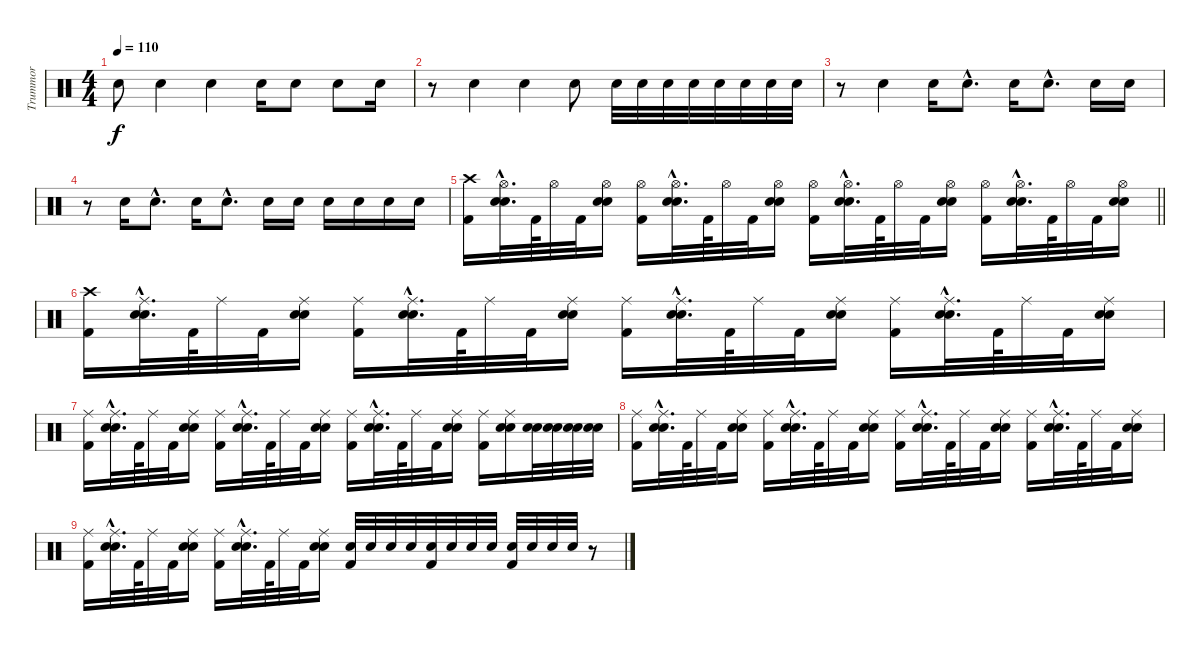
\track ("Trummor" "Trummor") {instrument percussion}
\staff {score}
\articulation defaults
\ts (4 4)
\tempo 110
\clef neutral
\ks c "Electric Snare (hit)".8{dy f} "Electric Snare (hit)".4 "Electric Snare (hit)".4 "Electric Snare (hit)".16 "Electric Snare (hit)".8 "Electric Snare (hit)".8 "Electric Snare (hit)".16
|
r.8 "Electric Snare (hit)".4 "Electric Snare (hit)".4 "Electric Snare (hit)".8 "Electric Snare (hit)".32 "Electric Snare (hit)".32 "Electric Snare (hit)".32 "Electric Snare (hit)".32 "Electric Snare (hit)".32 "Electric Snare (hit)".32 "Electric Snare (hit)".32 "Electric Snare (hit)".32 |
r.8 "Electric Snare (hit)".4 "Electric Snare (hit)".16 "Electric Snare (hit)"{hac}.8{d} "Electric Snare (hit)".16 "Electric Snare (hit)"{hac}.8{d} "Electric Snare (hit)".16 "Electric Snare (hit)".16 |
r.8 "Electric Snare (hit)".16 "Electric Snare (hit)"{hac}.8{d} "Electric Snare (hit)".16 "Electric Snare (hit)"{hac}.8{d} "Electric Snare (hit)".16 "Electric Snare (hit)".16 "Electric Snare (hit)".16 "Electric Snare (hit)".16 "Electric Snare (hit)".16 "Electric Snare (hit)".16 |
\barLineRight lightlight
("Crash high (hit)" "Kick (hit) 2").16 ("Hi-Hat (open)"{hac} "Electric Snare (hit)"{hac} "Electric Snare (hit)"{hac}).32{d} "Kick (hit) 2".64 "Hi-Hat (open)".32 "Kick (hit) 2".32 ("Hi-Hat (open)" "Electric Snare (hit)" "Electric Snare (hit)").16 ("Hi-Hat (open)" "Kick (hit) 2").16 ("Hi-Hat (open)"{hac} "Electric Snare (hit)"{hac} "Electric Snare (hit)"{hac}).32{d} "Kick (hit) 2".64 "Hi-Hat (open)".32 "Kick (hit) 2".32 ("Hi-Hat (open)" "Electric Snare (hit)" "Electric Snare (hit)").16 ("Hi-Hat (open)" "Kick (hit) 2").16 ("Hi-Hat (open)"{hac} "Electric Snare (hit)"{hac} "Electric Snare (hit)"{hac}).32{d} "Kick (hit) 2".64 "Hi-Hat (open)".32 "Kick (hit) 2".32 ("Hi-Hat (open)" "Electric Snare (hit)" "Electric Snare (hit)").16 ("Hi-Hat (open)" "Kick (hit) 2").16 ("Hi-Hat (open)"{hac} "Electric Snare (hit)"{hac} "Electric Snare (hit)"{hac}).32{d} "Kick (hit) 2".64 "Hi-Hat (open)".32 "Kick (hit) 2".32 ("Hi-Hat (open)" "Electric Snare (hit)" "Electric Snare (hit)").16 |
("Crash high (hit)" "Kick (hit) 2").16 ("Ride (middle)"{hac} "Electric Snare (hit)"{hac} "Electric Snare (hit)"{hac}).32{d} "Kick (hit) 2".64 "Ride (middle)".32 "Kick (hit) 2".32 ("Ride (middle)" "Electric Snare (hit)" "Electric Snare (hit)").16 ("Ride (middle)" "Kick (hit) 2").16 ("Ride (middle)"{hac} "Electric Snare (hit)"{hac} "Electric Snare (hit)"{hac}).32{d} "Kick (hit) 2".64 "Ride (middle)".32 "Kick (hit) 2".32 ("Ride (middle)" "Electric Snare (hit)" "Electric Snare (hit)").16 ("Ride (middle)" "Kick (hit) 2").16 ("Ride (middle)"{hac} "Electric Snare (hit)"{hac} "Electric Snare (hit)"{hac}).32{d} "Kick (hit) 2".64 "Ride (middle)".32 "Kick (hit) 2".32 ("Ride (middle)" "Electric Snare (hit)" "Electric Snare (hit)").16 ("Ride (middle)" "Kick (hit) 2").16 ("Ride (middle)"{hac} "Electric Snare (hit)"{hac} "Electric Snare (hit)"{hac}).32{d} "Kick (hit) 2".64 "Ride (middle)".32 "Kick (hit) 2".32 ("Ride (middle)" "Electric Snare (hit)" "Electric Snare (hit)").16 |
("Ride (middle)" "Kick (hit) 2").16 ("Ride (middle)"{hac} "Electric Snare (hit)"{hac} "Electric Snare (hit)"{hac}).32{d} "Kick (hit) 2".64 "Ride (middle)".32 "Kick (hit) 2".32 ("Ride (middle)" "Electric Snare (hit)" "Electric Snare (hit)").16 ("Ride (middle)" "Kick (hit) 2").16 ("Ride (middle)"{hac} "Electric Snare (hit)"{hac} "Electric Snare (hit)"{hac}).32{d} "Kick (hit) 2".64 "Ride (middle)".32 "Kick (hit) 2".32 ("Ride (middle)" "Electric Snare (hit)" "Electric Snare (hit)").16 ("Ride (middle)" "Kick (hit) 2").16 ("Ride (middle)"{hac} "Electric Snare (hit)"{hac} "Electric Snare (hit)"{hac}).32{d} "Kick (hit) 2".64 "Ride (middle)".32 "Kick (hit) 2".32 ("Ride (middle)" "Electric Snare (hit)" "Electric Snare (hit)").16 ("Ride (middle)" "Kick (hit) 2").16 ("Ride (middle)" "Electric Snare (hit)" "Electric Snare (hit)").16 ("Electric Snare (hit)" "Electric Snare (hit)").32 ("Electric Snare (hit)" "Electric Snare (hit)").32 ("Electric Snare (hit)" "Electric Snare (hit)").32 ("Electric Snare (hit)" "Electric Snare (hit)").32 |
("Ride (middle)" "Kick (hit) 2").16 ("Ride (middle)"{hac} "Electric Snare (hit)"{hac} "Electric Snare (hit)"{hac}).32{d} "Kick (hit) 2".64 "Ride (middle)".32 "Kick (hit) 2".32 ("Ride (middle)" "Electric Snare (hit)" "Electric Snare (hit)").16 ("Ride (middle)" "Kick (hit) 2").16 ("Ride (middle)"{hac} "Electric Snare (hit)"{hac} "Electric Snare (hit)"{hac}).32{d} "Kick (hit) 2".64 "Ride (middle)".32 "Kick (hit) 2".32 ("Ride (middle)" "Electric Snare (hit)" "Electric Snare (hit)").16 ("Ride (middle)" "Kick (hit) 2").16 ("Ride (middle)"{hac} "Electric Snare (hit)"{hac} "Electric Snare (hit)"{hac}).32{d} "Kick (hit) 2".64 "Ride (middle)".32 "Kick (hit) 2".32 ("Ride (middle)" "Electric Snare (hit)" "Electric Snare (hit)").16 ("Ride (middle)" "Kick (hit) 2").16 ("Ride (middle)"{hac} "Electric Snare (hit)"{hac} "Electric Snare (hit)"{hac}).32{d} "Kick (hit) 2".64 "Ride (middle)".32 "Kick (hit) 2".32 ("Ride (middle)" "Electric Snare (hit)" "Electric Snare (hit)").16 |
("Ride (middle)" "Kick (hit) 2").16 ("Ride (middle)"{hac} "Electric Snare (hit)"{hac} "Electric Snare (hit)"{hac}).32{d} "Kick (hit) 2".64 "Ride (middle)".32 "Kick (hit) 2".32 ("Ride (middle)" "Electric Snare (hit)" "Electric Snare (hit)").16 ("Ride (middle)" "Kick (hit) 2").16 ("Ride (middle)"{hac} "Electric Snare (hit)"{hac} "Electric Snare (hit)"{hac}).32{d} "Kick (hit) 2".64 "Ride (middle)".32 "Kick (hit) 2".32 ("Ride (middle)" "Electric Snare (hit)" "Electric Snare (hit)").16 ("Electric Snare (hit)" "Kick (hit) 2").32 "Electric Snare (hit)".32 "Electric Snare (hit)".32 "Electric Snare (hit)".32 ("Electric Snare (hit)" "Kick (hit) 2").32 "Electric Snare (hit)".32 "Electric Snare (hit)".32 "Electric Snare (hit)".32 ("Electric Snare (hit)" "Kick (hit) 2").32 "Electric Snare (hit)".32 "Electric Snare (hit)".32 "Electric Snare (hit)".32 r.8
